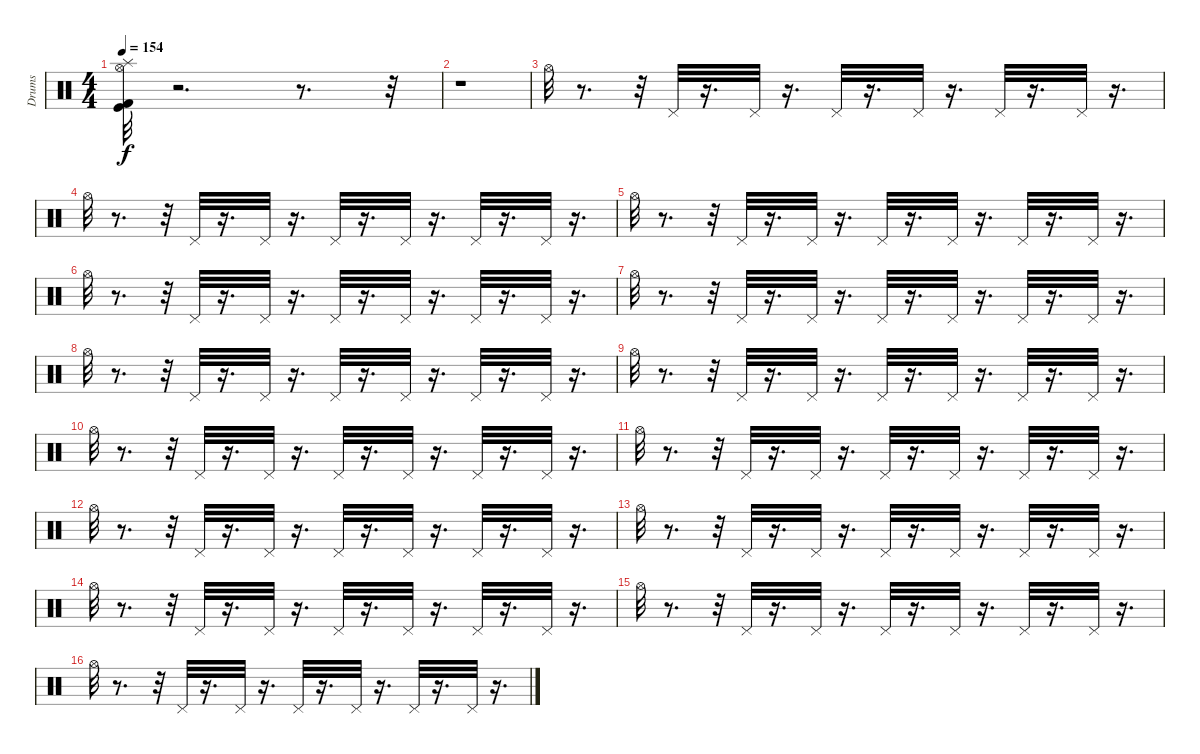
\track ("Drums" "Drums") {instrument percussion}
\staff {score}
\articulation defaults
\ts (4 4)
\tempo 154
\clef neutral
\ks c
("Kick (hit)" "Kick (hit) 2" "Hi-Hat (open)" "Splash (hit)").32{dy f} r.2{d} r.8{d} r.32 |
r.1 |
"Hi-Hat (open)".32 r.8{d} r.32 "Pedal Hi-Hat (hit)".32 r.16{d} "Pedal Hi-Hat (hit)".32 r.16{d} "Pedal Hi-Hat (hit)".32 r.16{d} "Pedal Hi-Hat (hit)".32 r.16{d} "Pedal Hi-Hat (hit)".32 r.16{d} "Pedal Hi-Hat (hit)".32 r.16{d} |
"Hi-Hat (open)".32 r.8{d} r.32 "Pedal Hi-Hat (hit)".32 r.16{d} "Pedal Hi-Hat (hit)".32 r.16{d} "Pedal Hi-Hat (hit)".32 r.16{d} "Pedal Hi-Hat (hit)".32 r.16{d} "Pedal Hi-Hat (hit)".32 r.16{d} "Pedal Hi-Hat (hit)".32 r.16{d} |
"Hi-Hat (open)".32 r.8{d} r.32 "Pedal Hi-Hat (hit)".32 r.16{d} "Pedal Hi-Hat (hit)".32 r.16{d} "Pedal Hi-Hat (hit)".32 r.16{d} "Pedal Hi-Hat (hit)".32 r.16{d} "Pedal Hi-Hat (hit)".32 r.16{d} "Pedal Hi-Hat (hit)".32 r.16{d} |
"Hi-Hat (open)".32 r.8{d} r.32 "Pedal Hi-Hat (hit)".32 r.16{d} "Pedal Hi-Hat (hit)".32 r.16{d} "Pedal Hi-Hat (hit)".32 r.16{d} "Pedal Hi-Hat (hit)".32 r.16{d} "Pedal Hi-Hat (hit)".32 r.16{d} "Pedal Hi-Hat (hit)".32 r.16{d} |
"Hi-Hat (open)".32 r.8{d} r.32 "Pedal Hi-Hat (hit)".32 r.16{d} "Pedal Hi-Hat (hit)".32 r.16{d} "Pedal Hi-Hat (hit)".32 r.16{d} "Pedal Hi-Hat (hit)".32 r.16{d} "Pedal Hi-Hat (hit)".32 r.16{d} "Pedal Hi-Hat (hit)".32 r.16{d} |
"Hi-Hat (open)".32 r.8{d} r.32 "Pedal Hi-Hat (hit)".32 r.16{d} "Pedal Hi-Hat (hit)".32 r.16{d} "Pedal Hi-Hat (hit)".32 r.16{d} "Pedal Hi-Hat (hit)".32 r.16{d} "Pedal Hi-Hat (hit)".32 r.16{d} "Pedal Hi-Hat (hit)".32 r.16{d} |
"Hi-Hat (open)".32 r.8{d} r.32 "Pedal Hi-Hat (hit)".32 r.16{d} "Pedal Hi-Hat (hit)".32 r.16{d} "Pedal Hi-Hat (hit)".32 r.16{d} "Pedal Hi-Hat (hit)".32 r.16{d} "Pedal Hi-Hat (hit)".32 r.16{d} "Pedal Hi-Hat (hit)".32 r.16{d} |
"Hi-Hat (open)".32 r.8{d} r.32 "Pedal Hi-Hat (hit)".32 r.16{d} "Pedal Hi-Hat (hit)".32 r.16{d} "Pedal Hi-Hat (hit)".32 r.16{d} "Pedal Hi-Hat (hit)".32 r.16{d} "Pedal Hi-Hat (hit)".32 r.16{d} "Pedal Hi-Hat (hit)".32 r.16{d} |
"Hi-Hat (open)".32 r.8{d} r.32 "Pedal Hi-Hat (hit)".32 r.16{d} "Pedal Hi-Hat (hit)".32 r.16{d} "Pedal Hi-Hat (hit)".32 r.16{d} "Pedal Hi-Hat (hit)".32 r.16{d} "Pedal Hi-Hat (hit)".32 r.16{d} "Pedal Hi-Hat (hit)".32 r.16{d} |
"Hi-Hat (open)".32 r.8{d} r.32 "Pedal Hi-Hat (hit)".32 r.16{d} "Pedal Hi-Hat (hit)".32 r.16{d} "Pedal Hi-Hat (hit)".32 r.16{d} "Pedal Hi-Hat (hit)".32 r.16{d} "Pedal Hi-Hat (hit)".32 r.16{d} "Pedal Hi-Hat (hit)".32 r.16{d} |
"Hi-Hat (open)".32 r.8{d} r.32 "Pedal Hi-Hat (hit)".32 r.16{d} "Pedal Hi-Hat (hit)".32 r.16{d} "Pedal Hi-Hat (hit)".32 r.16{d} "Pedal Hi-Hat (hit)".32 r.16{d} "Pedal Hi-Hat (hit)".32 r.16{d} "Pedal Hi-Hat (hit)".32 r.16{d} |
"Hi-Hat (open)".32 r.8{d} r.32 "Pedal Hi-Hat (hit)".32 r.16{d} "Pedal Hi-Hat (hit)".32 r.16{d} "Pedal Hi-Hat (hit)".32 r.16{d} "Pedal Hi-Hat (hit)".32 r.16{d} "Pedal Hi-Hat (hit)".32 r.16{d} "Pedal Hi-Hat (hit)".32 r.16{d} |
"Hi-Hat (open)".32 r.8{d} r.32 "Pedal Hi-Hat (hit)".32 r.16{d} "Pedal Hi-Hat (hit)".32 r.16{d} "Pedal Hi-Hat (hit)".32 r.16{d} "Pedal Hi-Hat (hit)".32 r.16{d} "Pedal Hi-Hat (hit)".32 r.16{d} "Pedal Hi-Hat (hit)".32 r.16{d} |
"Hi-Hat (open)".32 r.8{d} r.32 "Pedal Hi-Hat (hit)".32 r.16{d} "Pedal Hi-Hat (hit)".32 r.16{d} "Pedal Hi-Hat (hit)".32 r.16{d} "Pedal Hi-Hat (hit)".32 r.16{d} "Pedal Hi-Hat (hit)".32 r.16{d} "Pedal Hi-Hat (hit)".32 r.16{d}
